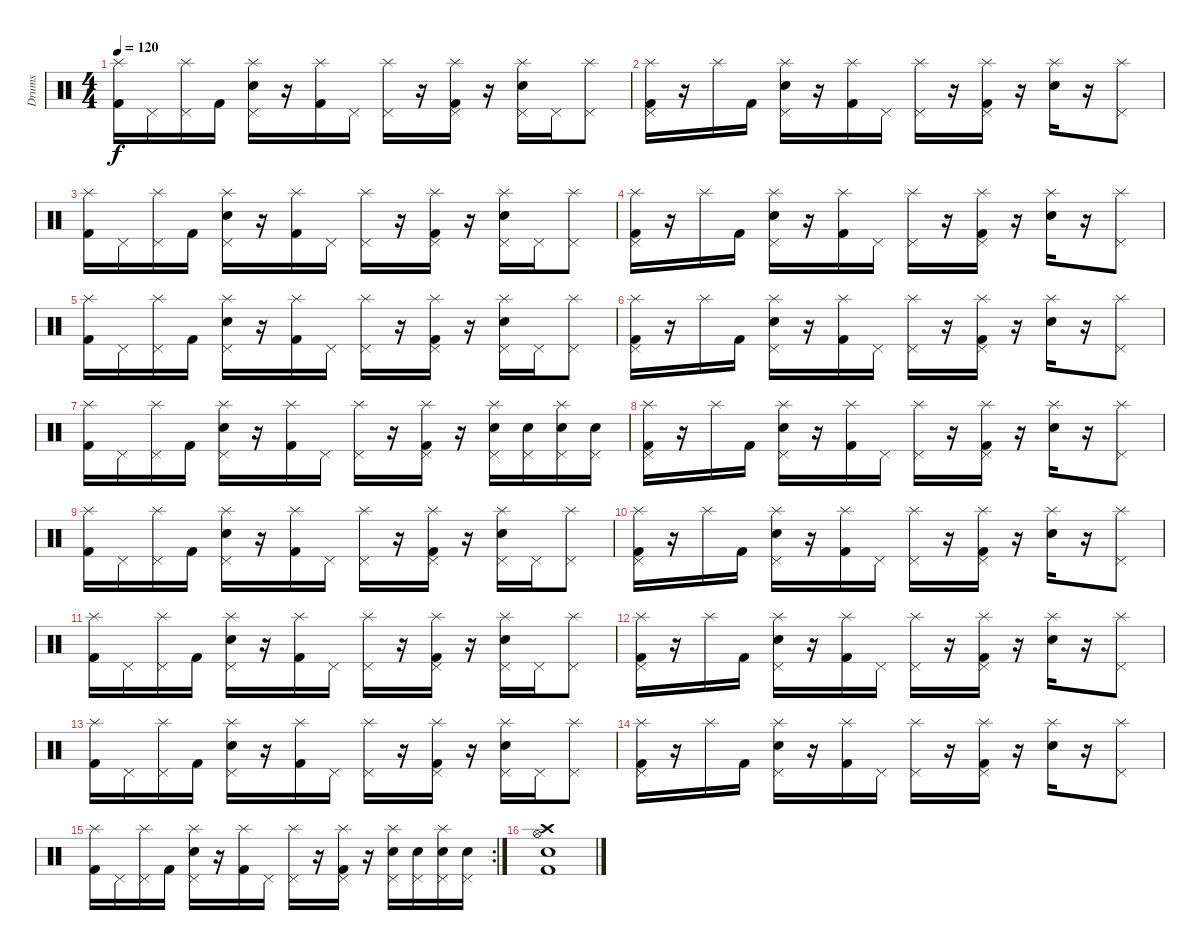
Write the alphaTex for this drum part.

\track ("Drums" "Drums") {instrument percussion}
\staff {score}
\articulation defaults
\ts (4 4)
\tempo 120
\clef neutral
\ks c
("Splash (hit)" "Kick (hit) 2").16{dy f} "Pedal Hi-Hat (hit)".16 ("Splash (hit)" "Pedal Hi-Hat (hit)").16 "Kick (hit) 2".16 ("Splash (hit)" "Pedal Hi-Hat (hit)" "Electric Snare (hit)").16 r.16 ("Splash (hit)" "Kick (hit) 2").16 "Pedal Hi-Hat (hit)".16 ("Splash (hit)" "Pedal Hi-Hat (hit)").16 r.16 ("Splash (hit)" "Pedal Hi-Hat (hit)" "Kick (hit) 2").16 r.16 ("Splash (hit)" "Pedal Hi-Hat (hit)" "Electric Snare (hit)").16 "Pedal Hi-Hat (hit)".16 ("Splash (hit)" "Pedal Hi-Hat (hit)").8 |
("Splash (hit)" "Pedal Hi-Hat (hit)" "Kick (hit) 2").16 r.16 "Splash (hit)".16 "Kick (hit) 2".16 ("Splash (hit)" "Pedal Hi-Hat (hit)" "Electric Snare (hit)").16 r.16 ("Splash (hit)" "Kick (hit) 2").16 "Pedal Hi-Hat (hit)".16 ("Splash (hit)" "Pedal Hi-Hat (hit)").16 r.16 ("Splash (hit)" "Pedal Hi-Hat (hit)" "Kick (hit) 2").16 r.16 ("Splash (hit)" "Electric Snare (hit)").16 r.16 ("Splash (hit)" "Pedal Hi-Hat (hit)").8 |
("Splash (hit)" "Kick (hit) 2").16 "Pedal Hi-Hat (hit)".16 ("Splash (hit)" "Pedal Hi-Hat (hit)").16 "Kick (hit) 2".16 ("Splash (hit)" "Pedal Hi-Hat (hit)" "Electric Snare (hit)").16 r.16 ("Splash (hit)" "Kick (hit) 2").16 "Pedal Hi-Hat (hit)".16 ("Splash (hit)" "Pedal Hi-Hat (hit)").16 r.16 ("Splash (hit)" "Pedal Hi-Hat (hit)" "Kick (hit) 2").16 r.16 ("Splash (hit)" "Pedal Hi-Hat (hit)" "Electric Snare (hit)").16 "Pedal Hi-Hat (hit)".16 ("Splash (hit)" "Pedal Hi-Hat (hit)").8 |
("Splash (hit)" "Pedal Hi-Hat (hit)" "Kick (hit) 2").16 r.16 "Splash (hit)".16 "Kick (hit) 2".16 ("Splash (hit)" "Pedal Hi-Hat (hit)" "Electric Snare (hit)").16 r.16 ("Splash (hit)" "Kick (hit) 2").16 "Pedal Hi-Hat (hit)".16 ("Splash (hit)" "Pedal Hi-Hat (hit)").16 r.16 ("Splash (hit)" "Pedal Hi-Hat (hit)" "Kick (hit) 2").16 r.16 ("Splash (hit)" "Electric Snare (hit)").16 r.16 ("Splash (hit)" "Pedal Hi-Hat (hit)").8 |
("Splash (hit)" "Kick (hit) 2").16 "Pedal Hi-Hat (hit)".16 ("Splash (hit)" "Pedal Hi-Hat (hit)").16 "Kick (hit) 2".16 ("Splash (hit)" "Pedal Hi-Hat (hit)" "Electric Snare (hit)").16 r.16 ("Splash (hit)" "Kick (hit) 2").16 "Pedal Hi-Hat (hit)".16 ("Splash (hit)" "Pedal Hi-Hat (hit)").16 r.16 ("Splash (hit)" "Pedal Hi-Hat (hit)" "Kick (hit) 2").16 r.16 ("Splash (hit)" "Pedal Hi-Hat (hit)" "Electric Snare (hit)").16 "Pedal Hi-Hat (hit)".16 ("Splash (hit)" "Pedal Hi-Hat (hit)").8 |
("Splash (hit)" "Pedal Hi-Hat (hit)" "Kick (hit) 2").16 r.16 "Splash (hit)".16 "Kick (hit) 2".16 ("Splash (hit)" "Pedal Hi-Hat (hit)" "Electric Snare (hit)").16 r.16 ("Splash (hit)" "Kick (hit) 2").16 "Pedal Hi-Hat (hit)".16 ("Splash (hit)" "Pedal Hi-Hat (hit)").16 r.16 ("Splash (hit)" "Pedal Hi-Hat (hit)" "Kick (hit) 2").16 r.16 ("Splash (hit)" "Electric Snare (hit)").16 r.16 ("Splash (hit)" "Pedal Hi-Hat (hit)").8 |
("Splash (hit)" "Kick (hit) 2").16 "Pedal Hi-Hat (hit)".16 ("Splash (hit)" "Pedal Hi-Hat (hit)").16 "Kick (hit) 2".16 ("Splash (hit)" "Pedal Hi-Hat (hit)" "Electric Snare (hit)").16 r.16 ("Splash (hit)" "Kick (hit) 2").16 "Pedal Hi-Hat (hit)".16 ("Splash (hit)" "Pedal Hi-Hat (hit)").16 r.16 ("Splash (hit)" "Pedal Hi-Hat (hit)" "Kick (hit) 2").16 r.16 ("Splash (hit)" "Pedal Hi-Hat (hit)" "Electric Snare (hit)").16 ("Pedal Hi-Hat (hit)" "Electric Snare (hit)").16 ("Splash (hit)" "Pedal Hi-Hat (hit)" "Electric Snare (hit)").16 ("Pedal Hi-Hat (hit)" "Electric Snare (hit)").16 |
("Splash (hit)" "Pedal Hi-Hat (hit)" "Kick (hit) 2").16 r.16 "Splash (hit)".16 "Kick (hit) 2".16 ("Splash (hit)" "Pedal Hi-Hat (hit)" "Electric Snare (hit)").16 r.16 ("Splash (hit)" "Kick (hit) 2").16 "Pedal Hi-Hat (hit)".16 ("Splash (hit)" "Pedal Hi-Hat (hit)").16 r.16 ("Splash (hit)" "Pedal Hi-Hat (hit)" "Kick (hit) 2").16 r.16 ("Splash (hit)" "Electric Snare (hit)").16 r.16 ("Splash (hit)" "Pedal Hi-Hat (hit)").8 |
("Splash (hit)" "Kick (hit) 2").16 "Pedal Hi-Hat (hit)".16 ("Splash (hit)" "Pedal Hi-Hat (hit)").16 "Kick (hit) 2".16 ("Splash (hit)" "Pedal Hi-Hat (hit)" "Electric Snare (hit)").16 r.16 ("Splash (hit)" "Kick (hit) 2").16 "Pedal Hi-Hat (hit)".16 ("Splash (hit)" "Pedal Hi-Hat (hit)").16 r.16 ("Splash (hit)" "Pedal Hi-Hat (hit)" "Kick (hit) 2").16 r.16 ("Splash (hit)" "Pedal Hi-Hat (hit)" "Electric Snare (hit)").16 "Pedal Hi-Hat (hit)".16 ("Splash (hit)" "Pedal Hi-Hat (hit)").8 |
("Splash (hit)" "Pedal Hi-Hat (hit)" "Kick (hit) 2").16 r.16 "Splash (hit)".16 "Kick (hit) 2".16 ("Splash (hit)" "Pedal Hi-Hat (hit)" "Electric Snare (hit)").16 r.16 ("Splash (hit)" "Kick (hit) 2").16 "Pedal Hi-Hat (hit)".16 ("Splash (hit)" "Pedal Hi-Hat (hit)").16 r.16 ("Splash (hit)" "Pedal Hi-Hat (hit)" "Kick (hit) 2").16 r.16 ("Splash (hit)" "Electric Snare (hit)").16 r.16 ("Splash (hit)" "Pedal Hi-Hat (hit)").8 |
("Splash (hit)" "Kick (hit) 2").16 "Pedal Hi-Hat (hit)".16 ("Splash (hit)" "Pedal Hi-Hat (hit)").16 "Kick (hit) 2".16 ("Splash (hit)" "Pedal Hi-Hat (hit)" "Electric Snare (hit)").16 r.16 ("Splash (hit)" "Kick (hit) 2").16 "Pedal Hi-Hat (hit)".16 ("Splash (hit)" "Pedal Hi-Hat (hit)").16 r.16 ("Splash (hit)" "Pedal Hi-Hat (hit)" "Kick (hit) 2").16 r.16 ("Splash (hit)" "Pedal Hi-Hat (hit)" "Electric Snare (hit)").16 "Pedal Hi-Hat (hit)".16 ("Splash (hit)" "Pedal Hi-Hat (hit)").8 |
("Splash (hit)" "Pedal Hi-Hat (hit)" "Kick (hit) 2").16 r.16 "Splash (hit)".16 "Kick (hit) 2".16 ("Splash (hit)" "Pedal Hi-Hat (hit)" "Electric Snare (hit)").16 r.16 ("Splash (hit)" "Kick (hit) 2").16 "Pedal Hi-Hat (hit)".16 ("Splash (hit)" "Pedal Hi-Hat (hit)").16 r.16 ("Splash (hit)" "Pedal Hi-Hat (hit)" "Kick (hit) 2").16 r.16 ("Splash (hit)" "Electric Snare (hit)").16 r.16 ("Splash (hit)" "Pedal Hi-Hat (hit)").8 |
("Splash (hit)" "Kick (hit) 2").16 "Pedal Hi-Hat (hit)".16 ("Splash (hit)" "Pedal Hi-Hat (hit)").16 "Kick (hit) 2".16 ("Splash (hit)" "Pedal Hi-Hat (hit)" "Electric Snare (hit)").16 r.16 ("Splash (hit)" "Kick (hit) 2").16 "Pedal Hi-Hat (hit)".16 ("Splash (hit)" "Pedal Hi-Hat (hit)").16 r.16 ("Splash (hit)" "Pedal Hi-Hat (hit)" "Kick (hit) 2").16 r.16 ("Splash (hit)" "Pedal Hi-Hat (hit)" "Electric Snare (hit)").16 "Pedal Hi-Hat (hit)".16 ("Splash (hit)" "Pedal Hi-Hat (hit)").8 |
("Splash (hit)" "Pedal Hi-Hat (hit)" "Kick (hit) 2").16 r.16 "Splash (hit)".16 "Kick (hit) 2".16 ("Splash (hit)" "Pedal Hi-Hat (hit)" "Electric Snare (hit)").16 r.16 ("Splash (hit)" "Kick (hit) 2").16 "Pedal Hi-Hat (hit)".16 ("Splash (hit)" "Pedal Hi-Hat (hit)").16 r.16 ("Splash (hit)" "Pedal Hi-Hat (hit)" "Kick (hit) 2").16 r.16 ("Splash (hit)" "Electric Snare (hit)").16 r.16 ("Splash (hit)" "Pedal Hi-Hat (hit)").8 |
\rc 2
("Splash (hit)" "Kick (hit) 2").16 "Pedal Hi-Hat (hit)".16 ("Splash (hit)" "Pedal Hi-Hat (hit)").16 "Kick (hit) 2".16 ("Splash (hit)" "Pedal Hi-Hat (hit)" "Electric Snare (hit)").16 r.16 ("Splash (hit)" "Kick (hit) 2").16 "Pedal Hi-Hat (hit)".16 ("Splash (hit)" "Pedal Hi-Hat (hit)").16 r.16 ("Splash (hit)" "Pedal Hi-Hat (hit)" "Kick (hit) 2").16 r.16 ("Splash (hit)" "Pedal Hi-Hat (hit)" "Electric Snare (hit)").16 ("Pedal Hi-Hat (hit)" "Electric Snare (hit)").16 ("Splash (hit)" "Pedal Hi-Hat (hit)" "Electric Snare (hit)").16 ("Pedal Hi-Hat (hit)" "Electric Snare (hit)").16 |
("Crash high (hit)" "Hi-Hat (open)" "Electric Snare (hit)" "Kick (hit) 2").1
